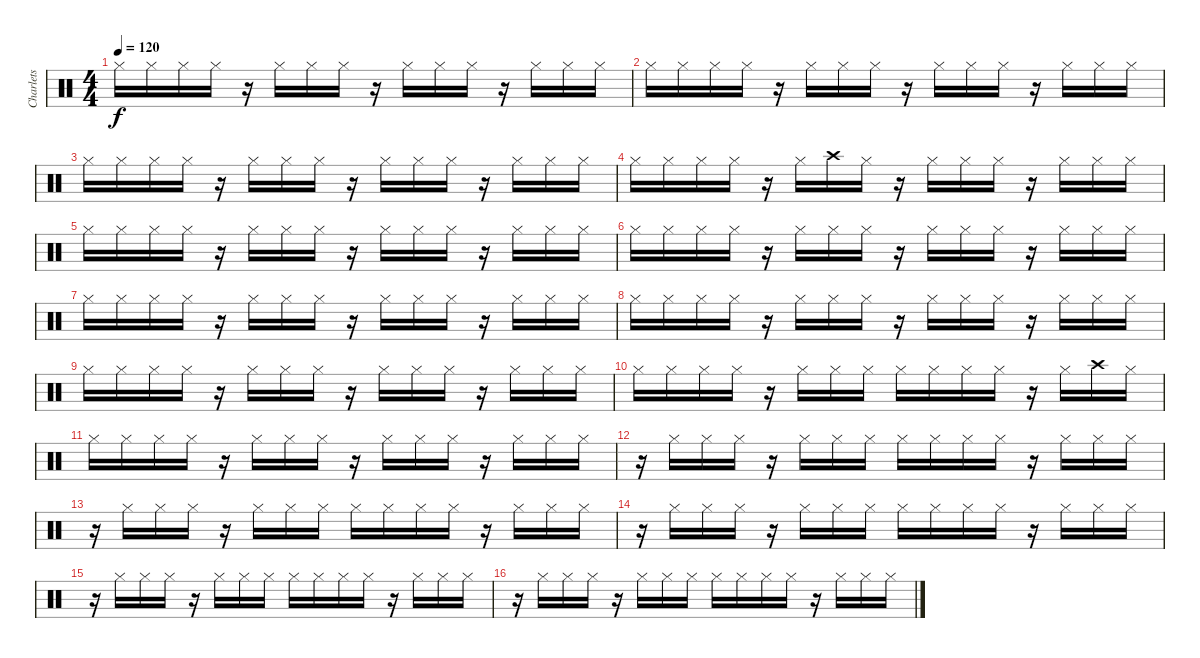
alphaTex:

\track ("Charlets" "Charlets") {instrument percussion}
\staff {score}
\articulation defaults
\ts (4 4)
\tempo 120
\clef neutral
\ks c "Hi-Hat (closed)".16{dy f} "Hi-Hat (closed)".16 "Hi-Hat (closed)".16 "Hi-Hat (closed)".16
r.16 "Hi-Hat (closed)".16 "Hi-Hat (closed)".16 "Hi-Hat (closed)".16 r.16 "Hi-Hat (closed)".16 "Hi-Hat (closed)".16 "Hi-Hat (closed)".16 r.16 "Hi-Hat (closed)".16 "Hi-Hat (closed)".16 "Hi-Hat (closed)".16 |
"Hi-Hat (closed)".16 "Hi-Hat (closed)".16 "Hi-Hat (closed)".16 "Hi-Hat (closed)".16 r.16 "Hi-Hat (closed)".16 "Hi-Hat (closed)".16 "Hi-Hat (closed)".16 r.16 "Hi-Hat (closed)".16 "Hi-Hat (closed)".16 "Hi-Hat (closed)".16 r.16 "Hi-Hat (closed)".16 "Hi-Hat (closed)".16 "Hi-Hat (closed)".16 |
"Hi-Hat (closed)".16 "Hi-Hat (closed)".16 "Hi-Hat (closed)".16 "Hi-Hat (closed)".16 r.16 "Hi-Hat (closed)".16 "Hi-Hat (closed)".16 "Hi-Hat (closed)".16 r.16 "Hi-Hat (closed)".16 "Hi-Hat (closed)".16 "Hi-Hat (closed)".16 r.16 "Hi-Hat (closed)".16 "Hi-Hat (closed)".16 "Hi-Hat (closed)".16 |
"Hi-Hat (closed)".16 "Hi-Hat (closed)".16 "Hi-Hat (closed)".16 "Hi-Hat (closed)".16 r.16 "Hi-Hat (closed)".16 "Crash high (hit)".16 "Hi-Hat (closed)".16 r.16 "Hi-Hat (closed)".16 "Hi-Hat (closed)".16 "Hi-Hat (closed)".16 r.16 "Hi-Hat (closed)".16 "Hi-Hat (closed)".16 "Hi-Hat (closed)".16 |
"Hi-Hat (closed)".16 "Hi-Hat (closed)".16 "Hi-Hat (closed)".16 "Hi-Hat (closed)".16 r.16 "Hi-Hat (closed)".16 "Hi-Hat (closed)".16 "Hi-Hat (closed)".16 r.16 "Hi-Hat (closed)".16 "Hi-Hat (closed)".16 "Hi-Hat (closed)".16 r.16 "Hi-Hat (closed)".16 "Hi-Hat (closed)".16 "Hi-Hat (closed)".16 |
"Hi-Hat (closed)".16 "Hi-Hat (closed)".16 "Hi-Hat (closed)".16 "Hi-Hat (closed)".16 r.16 "Hi-Hat (closed)".16 "Hi-Hat (closed)".16 "Hi-Hat (closed)".16 r.16 "Hi-Hat (closed)".16 "Hi-Hat (closed)".16 "Hi-Hat (closed)".16 r.16 "Hi-Hat (closed)".16 "Hi-Hat (closed)".16 "Hi-Hat (closed)".16 |
"Hi-Hat (closed)".16 "Hi-Hat (closed)".16 "Hi-Hat (closed)".16 "Hi-Hat (closed)".16 r.16 "Hi-Hat (closed)".16 "Hi-Hat (closed)".16 "Hi-Hat (closed)".16 r.16 "Hi-Hat (closed)".16 "Hi-Hat (closed)".16 "Hi-Hat (closed)".16 r.16 "Hi-Hat (closed)".16 "Hi-Hat (closed)".16 "Hi-Hat (closed)".16 |
"Hi-Hat (closed)".16 "Hi-Hat (closed)".16 "Hi-Hat (closed)".16 "Hi-Hat (closed)".16 r.16 "Hi-Hat (closed)".16 "Hi-Hat (closed)".16 "Hi-Hat (closed)".16 r.16 "Hi-Hat (closed)".16 "Hi-Hat (closed)".16 "Hi-Hat (closed)".16 r.16 "Hi-Hat (closed)".16 "Hi-Hat (closed)".16 "Hi-Hat (closed)".16 |
"Hi-Hat (closed)".16 "Hi-Hat (closed)".16 "Hi-Hat (closed)".16 "Hi-Hat (closed)".16 r.16 "Hi-Hat (closed)".16 "Hi-Hat (closed)".16 "Hi-Hat (closed)".16 r.16 "Hi-Hat (closed)".16 "Hi-Hat (closed)".16 "Hi-Hat (closed)".16 r.16 "Hi-Hat (closed)".16 "Hi-Hat (closed)".16 "Hi-Hat (closed)".16 |
"Hi-Hat (closed)".16 "Hi-Hat (closed)".16 "Hi-Hat (closed)".16 "Hi-Hat (closed)".16 r.16 "Hi-Hat (closed)".16 "Hi-Hat (closed)".16 "Hi-Hat (closed)".16 "Hi-Hat (closed)".16 "Hi-Hat (closed)".16 "Hi-Hat (closed)".16 "Hi-Hat (closed)".16 r.16 "Hi-Hat (closed)".16 "Crash high (hit)".16 "Hi-Hat (closed)".16 |
"Hi-Hat (closed)".16 "Hi-Hat (closed)".16 "Hi-Hat (closed)".16 "Hi-Hat (closed)".16 r.16 "Hi-Hat (closed)".16 "Hi-Hat (closed)".16 "Hi-Hat (closed)".16 r.16 "Hi-Hat (closed)".16 "Hi-Hat (closed)".16 "Hi-Hat (closed)".16 r.16 "Hi-Hat (closed)".16 "Hi-Hat (closed)".16 "Hi-Hat (closed)".16 |
r.16 "Hi-Hat (closed)".16 "Hi-Hat (closed)".16 "Hi-Hat (closed)".16 r.16 "Hi-Hat (closed)".16 "Hi-Hat (closed)".16 "Hi-Hat (closed)".16 "Hi-Hat (closed)".16 "Hi-Hat (closed)".16 "Hi-Hat (closed)".16 "Hi-Hat (closed)".16 r.16 "Hi-Hat (closed)".16 "Hi-Hat (closed)".16 "Hi-Hat (closed)".16 |
r.16 "Hi-Hat (closed)".16 "Hi-Hat (closed)".16 "Hi-Hat (closed)".16 r.16 "Hi-Hat (closed)".16 "Hi-Hat (closed)".16 "Hi-Hat (closed)".16 "Hi-Hat (closed)".16 "Hi-Hat (closed)".16 "Hi-Hat (closed)".16 "Hi-Hat (closed)".16 r.16 "Hi-Hat (closed)".16 "Hi-Hat (closed)".16 "Hi-Hat (closed)".16 |
r.16 "Hi-Hat (closed)".16 "Hi-Hat (closed)".16 "Hi-Hat (closed)".16 r.16 "Hi-Hat (closed)".16 "Hi-Hat (closed)".16 "Hi-Hat (closed)".16 "Hi-Hat (closed)".16 "Hi-Hat (closed)".16 "Hi-Hat (closed)".16 "Hi-Hat (closed)".16 r.16 "Hi-Hat (closed)".16 "Hi-Hat (closed)".16 "Hi-Hat (closed)".16 |
r.16 "Hi-Hat (closed)".16 "Hi-Hat (closed)".16 "Hi-Hat (closed)".16 r.16 "Hi-Hat (closed)".16 "Hi-Hat (closed)".16 "Hi-Hat (closed)".16 "Hi-Hat (closed)".16 "Hi-Hat (closed)".16 "Hi-Hat (closed)".16 "Hi-Hat (closed)".16 r.16 "Hi-Hat (closed)".16 "Hi-Hat (closed)".16 "Hi-Hat (closed)".16 |
r.16 "Hi-Hat (closed)".16 "Hi-Hat (closed)".16 "Hi-Hat (closed)".16 r.16 "Hi-Hat (closed)".16 "Hi-Hat (closed)".16 "Hi-Hat (closed)".16 "Hi-Hat (closed)".16 "Hi-Hat (closed)".16 "Hi-Hat (closed)".16 "Hi-Hat (closed)".16 r.16 "Hi-Hat (closed)".16 "Hi-Hat (closed)".16 "Hi-Hat (closed)".16
